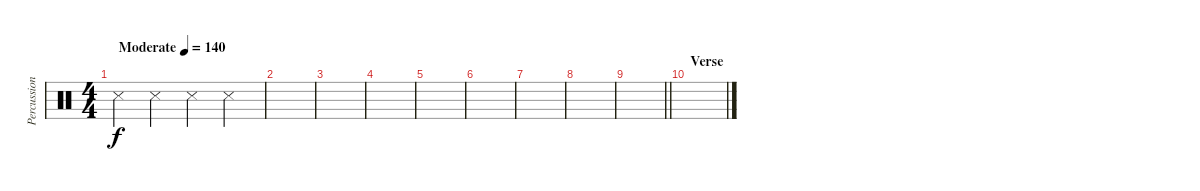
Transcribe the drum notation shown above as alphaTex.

\track ("Percussion" "Percussion") {instrument percussion}
\staff {score}
\articulation defaults
\ts (4 4)
\tempo (140 "Moderate")
\clef neutral
\ks c "Snare (side stick) 3".4{dy f} "Snare (side stick) 3".4 "Snare (side stick) 3".4 "Snare (side stick) 3".4
|
|
|
|
|
|
|
|
\barLineRight lightlight
|
\section ("" "Verse")
